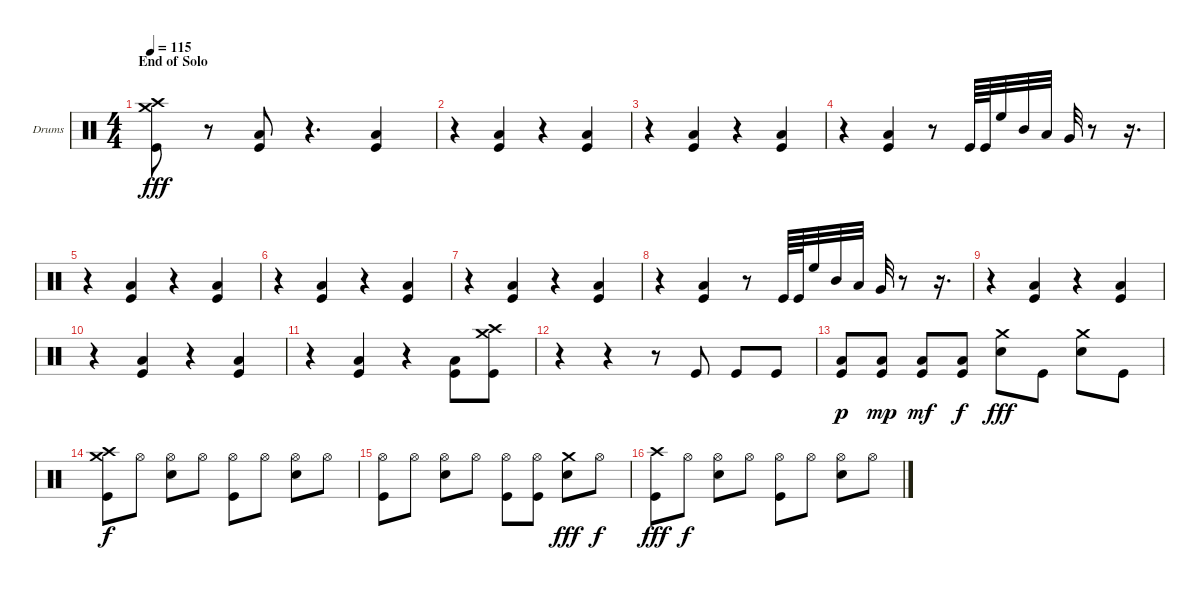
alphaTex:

\bracketExtendMode groupsimilarinstruments
\firstSystemTrackNameOrientation horizontal
\otherSystemsTrackNameOrientation horizontal
\track ("Drumkit" "Drums") {instrument percussion}
\staff {score}
\articulation defaults
\ts (4 4)
\section ("" "End of Solo")
\tempo 115
\clef neutral
\ks c
("Crash high (hit)" "Crash medium (hit)" "Kick (hit)").8{dy fff} r.8 ("Low Tom (hit)" "Kick (hit)").8 r.4{d} ("Low Tom (hit)" "Kick (hit)").4 |
r.4 ("Low Tom (hit)" "Kick (hit)").4 r.4 ("Low Tom (hit)" "Kick (hit)").4 |
r.4 ("Low Tom (hit)" "Kick (hit)").4 r.4 ("Low Tom (hit)" "Kick (hit)").4 |
r.4 ("Low Tom (hit)" "Kick (hit)").4 r.8 "Kick (hit)".64 "Kick (hit)".64 "High Floor Tom (hit)".32 "Mid Tom (hit)".32 "Low Tom (hit)".32 "Very Low Tom (hit)".32 r.8 r.16{d} |
r.4 ("Low Tom (hit)" "Kick (hit)").4 r.4 ("Low Tom (hit)" "Kick (hit)").4 |
r.4 ("Low Tom (hit)" "Kick (hit)").4 r.4 ("Low Tom (hit)" "Kick (hit)").4 |
r.4 ("Low Tom (hit)" "Kick (hit)").4 r.4 ("Low Tom (hit)" "Kick (hit)").4 |
r.4 ("Low Tom (hit)" "Kick (hit)").4 r.8 "Kick (hit)".64 "Kick (hit)".64 "High Floor Tom (hit)".32 "Mid Tom (hit)".32 "Low Tom (hit)".32 "Very Low Tom (hit)".32 r.8 r.16{d} |
r.4 ("Low Tom (hit)" "Kick (hit)").4 r.4 ("Low Tom (hit)" "Kick (hit)").4 |
r.4 ("Low Tom (hit)" "Kick (hit)").4 r.4 ("Low Tom (hit)" "Kick (hit)").4 |
r.4 ("Low Tom (hit)" "Kick (hit)").4 r.4 ("Low Tom (hit)" "Kick (hit)").8 ("Crash medium (hit)" "Crash high (hit)" "Kick (hit)").8 |
r.4 r.4 r.8 "Kick (hit)".8 "Kick (hit)".8 "Kick (hit)".8 |
("Low Tom (hit)" "Kick (hit)").8{dy p} ("Low Tom (hit)" "Kick (hit)").8{dy mp} ("Low Tom (hit)" "Kick (hit)").8{dy mf} ("Low Tom (hit)" "Kick (hit)").8{dy f} ("Crash medium (hit)" "Snare (hit) 2").8{dy fff} "Kick (hit)".8 ("Crash medium (hit)" "Snare (hit) 2").8 "Kick (hit)".8 |
("Crash medium (hit)" "Crash high (hit)" "Kick (hit)").8{dy f} "Hi-Hat (open)".8 ("Hi-Hat (open)" "Snare (hit) 2").8 "Hi-Hat (open)".8 ("Hi-Hat (open)" "Kick (hit)").8 "Hi-Hat (open)".8 ("Hi-Hat (open)" "Snare (hit) 2").8 "Hi-Hat (open)".8 |
("Hi-Hat (open)" "Kick (hit)").8 "Hi-Hat (open)".8 ("Hi-Hat (open)" "Snare (hit) 2").8 "Hi-Hat (open)".8 ("Hi-Hat (open)" "Kick (hit)").8 ("Hi-Hat (open)" "Kick (hit)").8 ("Crash medium (hit)" "Snare (hit) 2").8{dy fff} "Hi-Hat (open)".8{dy f} |
("Crash high (hit)" "Kick (hit)").8{dy fff} "Hi-Hat (open)".8{dy f} ("Hi-Hat (open)" "Snare (hit) 2").8 "Hi-Hat (open)".8 ("Hi-Hat (open)" "Kick (hit)").8 "Hi-Hat (open)".8 ("Hi-Hat (open)" "Snare (hit) 2").8 "Hi-Hat (open)".8
